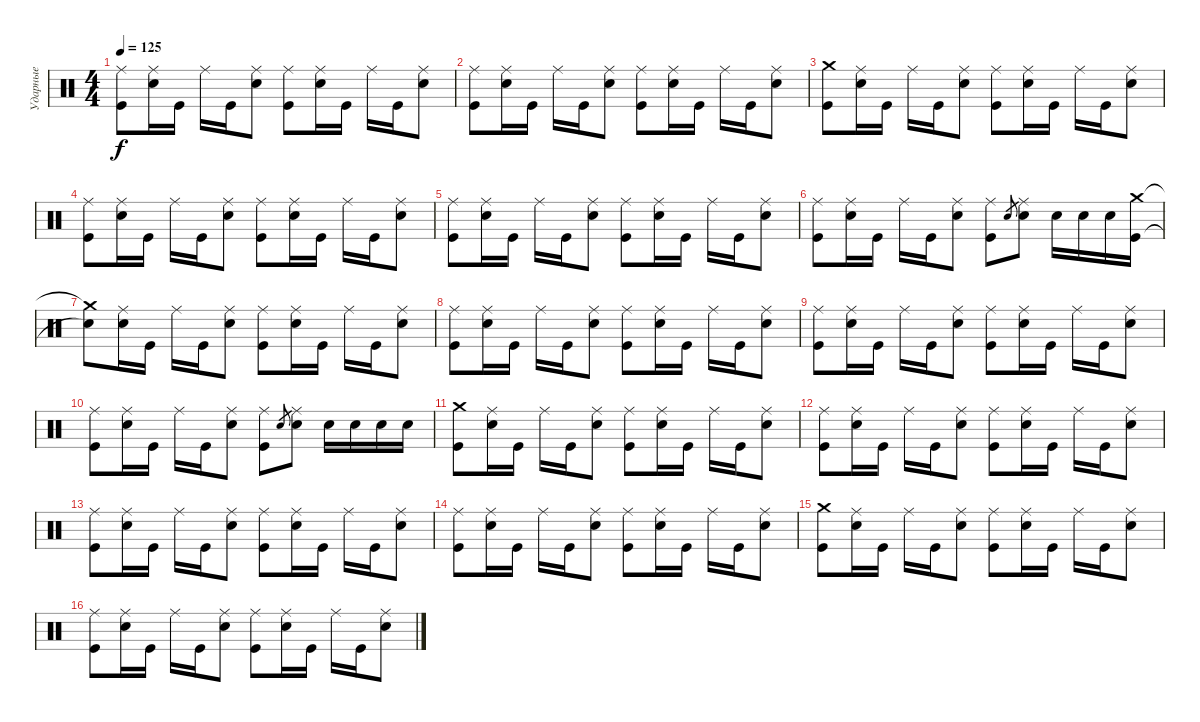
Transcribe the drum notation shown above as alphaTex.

\track ("Ударные" "Ударные") {instrument percussion}
\staff {score}
\articulation defaults
\ts (4 4)
\tempo 125
\clef neutral
\ks c
("Ride (middle)" "Kick (hit)").8{dy f} ("Ride (middle)" "Electric Snare (hit)").16 "Kick (hit)".16 "Ride (middle)".16 "Kick (hit)".16 ("Ride (middle)" "Electric Snare (hit)").8 ("Ride (middle)" "Kick (hit)").8 ("Ride (middle)" "Electric Snare (hit)").16 "Kick (hit)".16 "Ride (middle)".16 "Kick (hit)".16 ("Ride (middle)" "Electric Snare (hit)").8 |
("Ride (middle)" "Kick (hit)").8 ("Ride (middle)" "Electric Snare (hit)").16 "Kick (hit)".16 "Ride (middle)".16 "Kick (hit)".16 ("Ride (middle)" "Electric Snare (hit)").8 ("Ride (middle)" "Kick (hit)").8 ("Ride (middle)" "Electric Snare (hit)").16 "Kick (hit)".16 "Ride (middle)".16 "Kick (hit)".16 ("Ride (middle)" "Electric Snare (hit)").8 |
("Crash medium (hit)" "Kick (hit)").8 ("Ride (middle)" "Electric Snare (hit)").16 "Kick (hit)".16 "Ride (middle)".16 "Kick (hit)".16 ("Ride (middle)" "Electric Snare (hit)").8 ("Ride (middle)" "Kick (hit)").8 ("Ride (middle)" "Electric Snare (hit)").16 "Kick (hit)".16 "Ride (middle)".16 "Kick (hit)".16 ("Ride (middle)" "Electric Snare (hit)").8 |
("Ride (middle)" "Kick (hit)").8 ("Ride (middle)" "Electric Snare (hit)").16 "Kick (hit)".16 "Ride (middle)".16 "Kick (hit)".16 ("Ride (middle)" "Electric Snare (hit)").8 ("Ride (middle)" "Kick (hit)").8 ("Ride (middle)" "Electric Snare (hit)").16 "Kick (hit)".16 "Ride (middle)".16 "Kick (hit)".16 ("Ride (middle)" "Electric Snare (hit)").8 |
("Ride (middle)" "Kick (hit)").8 ("Ride (middle)" "Electric Snare (hit)").16 "Kick (hit)".16 "Ride (middle)".16 "Kick (hit)".16 ("Ride (middle)" "Electric Snare (hit)").8 ("Ride (middle)" "Kick (hit)").8 ("Ride (middle)" "Electric Snare (hit)").16 "Kick (hit)".16 "Ride (middle)".16 "Kick (hit)".16 ("Ride (middle)" "Electric Snare (hit)").8 |
("Ride (middle)" "Kick (hit)").8 ("Ride (middle)" "Electric Snare (hit)").16 "Kick (hit)".16 "Ride (middle)".16 "Kick (hit)".16 ("Ride (middle)" "Electric Snare (hit)").8 ("Ride (middle)" "Kick (hit)").8 "Electric Snare (hit)".8{gr} ("Ride (middle)" "Electric Snare (hit)").8 "Electric Snare (hit)".16 "Electric Snare (hit)".16 "Electric Snare (hit)".16 ("Crash medium (hit)" "Kick (hit)").16 |
("Crash medium (hit)"{t} "Snare (hit)"{t}).8 ("Ride (middle)" "Electric Snare (hit)").16 "Kick (hit)".16 "Ride (middle)".16 "Kick (hit)".16 ("Ride (middle)" "Electric Snare (hit)").8 ("Ride (middle)" "Kick (hit)").8 ("Ride (middle)" "Electric Snare (hit)").16 "Kick (hit)".16 "Ride (middle)".16 "Kick (hit)".16 ("Ride (middle)" "Electric Snare (hit)").8 |
("Ride (middle)" "Kick (hit)").8 ("Ride (middle)" "Electric Snare (hit)").16 "Kick (hit)".16 "Ride (middle)".16 "Kick (hit)".16 ("Ride (middle)" "Electric Snare (hit)").8 ("Ride (middle)" "Kick (hit)").8 ("Ride (middle)" "Electric Snare (hit)").16 "Kick (hit)".16 "Ride (middle)".16 "Kick (hit)".16 ("Ride (middle)" "Electric Snare (hit)").8 |
("Ride (middle)" "Kick (hit)").8 ("Ride (middle)" "Electric Snare (hit)").16 "Kick (hit)".16 "Ride (middle)".16 "Kick (hit)".16 ("Ride (middle)" "Electric Snare (hit)").8 ("Ride (middle)" "Kick (hit)").8 ("Ride (middle)" "Electric Snare (hit)").16 "Kick (hit)".16 "Ride (middle)".16 "Kick (hit)".16 ("Ride (middle)" "Electric Snare (hit)").8 |
("Ride (middle)" "Kick (hit)").8 ("Ride (middle)" "Electric Snare (hit)").16 "Kick (hit)".16 "Ride (middle)".16 "Kick (hit)".16 ("Ride (middle)" "Electric Snare (hit)").8 ("Ride (middle)" "Kick (hit)").8 "Electric Snare (hit)".8{gr} ("Ride (middle)" "Electric Snare (hit)").8 "Electric Snare (hit)".16 "Electric Snare (hit)".16 "Electric Snare (hit)".16 "Electric Snare (hit)".16 |
("Crash medium (hit)" "Kick (hit)").8 ("Ride (middle)" "Electric Snare (hit)").16 "Kick (hit)".16 "Ride (middle)".16 "Kick (hit)".16 ("Ride (middle)" "Electric Snare (hit)").8 ("Ride (middle)" "Kick (hit)").8 ("Ride (middle)" "Electric Snare (hit)").16 "Kick (hit)".16 "Ride (middle)".16 "Kick (hit)".16 ("Ride (middle)" "Electric Snare (hit)").8 |
("Ride (middle)" "Kick (hit)").8 ("Ride (middle)" "Electric Snare (hit)").16 "Kick (hit)".16 "Ride (middle)".16 "Kick (hit)".16 ("Ride (middle)" "Electric Snare (hit)").8 ("Ride (middle)" "Kick (hit)").8 ("Ride (middle)" "Electric Snare (hit)").16 "Kick (hit)".16 "Ride (middle)".16 "Kick (hit)".16 ("Ride (middle)" "Electric Snare (hit)").8 |
("Ride (middle)" "Kick (hit)").8 ("Ride (middle)" "Electric Snare (hit)").16 "Kick (hit)".16 "Ride (middle)".16 "Kick (hit)".16 ("Ride (middle)" "Electric Snare (hit)").8 ("Ride (middle)" "Kick (hit)").8 ("Ride (middle)" "Electric Snare (hit)").16 "Kick (hit)".16 "Ride (middle)".16 "Kick (hit)".16 ("Ride (middle)" "Electric Snare (hit)").8 |
("Ride (middle)" "Kick (hit)").8 ("Ride (middle)" "Electric Snare (hit)").16 "Kick (hit)".16 "Ride (middle)".16 "Kick (hit)".16 ("Ride (middle)" "Electric Snare (hit)").8 ("Ride (middle)" "Kick (hit)").8 ("Ride (middle)" "Electric Snare (hit)").16 "Kick (hit)".16 "Ride (middle)".16 "Kick (hit)".16 ("Ride (middle)" "Electric Snare (hit)").8 |
("Crash medium (hit)" "Kick (hit)").8 ("Ride (middle)" "Electric Snare (hit)").16 "Kick (hit)".16 "Ride (middle)".16 "Kick (hit)".16 ("Ride (middle)" "Electric Snare (hit)").8 ("Ride (middle)" "Kick (hit)").8 ("Ride (middle)" "Electric Snare (hit)").16 "Kick (hit)".16 "Ride (middle)".16 "Kick (hit)".16 ("Ride (middle)" "Electric Snare (hit)").8 |
("Ride (middle)" "Kick (hit)").8 ("Ride (middle)" "Electric Snare (hit)").16 "Kick (hit)".16 "Ride (middle)".16 "Kick (hit)".16 ("Ride (middle)" "Electric Snare (hit)").8 ("Ride (middle)" "Kick (hit)").8 ("Ride (middle)" "Electric Snare (hit)").16 "Kick (hit)".16 "Ride (middle)".16 "Kick (hit)".16 ("Ride (middle)" "Electric Snare (hit)").8
